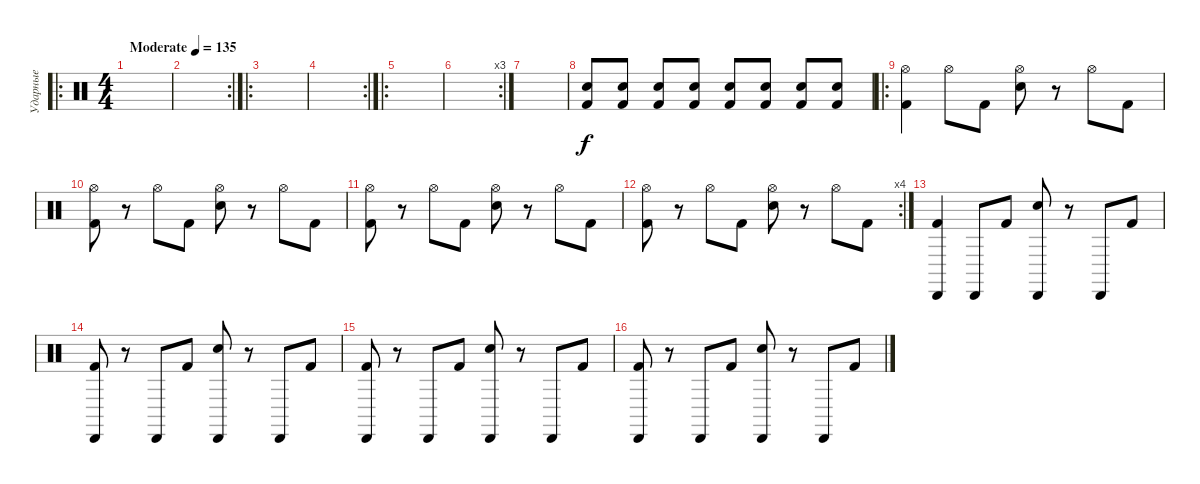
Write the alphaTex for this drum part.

\track ("Ударные" "Ударные") {instrument percussion}
\staff {score}
\articulation defaults
\ro
\ts (4 4)
\tempo (135 "Moderate")
\clef neutral
\ks c
|
\rc 2
|
\ro
|
\rc 2
|
\ro
|
\rc 3
|
|
("Electric Snare (hit)" "Kick (hit) 2").8 ("Electric Snare (hit)" "Kick (hit) 2").8 ("Electric Snare (hit)" "Kick (hit) 2").8 ("Electric Snare (hit)" "Kick (hit) 2").8 ("Electric Snare (hit)" "Kick (hit) 2").8 ("Electric Snare (hit)" "Kick (hit) 2").8 ("Electric Snare (hit)" "Kick (hit) 2").8 ("Electric Snare (hit)" "Kick (hit) 2").8 |
\ro
("Hi-Hat (open)" "Kick (hit) 2").4 "Hi-Hat (open)".8 "Kick (hit) 2".8 ("Electric Snare (hit)" "Hi-Hat (open)").8 r.8 "Hi-Hat (open)".8 "Kick (hit) 2".8 |
("Kick (hit) 2" "Hi-Hat (open)").8 r.8 "Hi-Hat (open)".8 "Kick (hit) 2".8 ("Electric Snare (hit)" "Hi-Hat (open)").8 r.8 "Hi-Hat (open)".8 "Kick (hit) 2".8 |
("Kick (hit) 2" "Hi-Hat (open)").8 r.8 "Hi-Hat (open)".8 "Kick (hit) 2".8 ("Electric Snare (hit)" "Hi-Hat (open)").8 r.8 "Hi-Hat (open)".8 "Kick (hit) 2".8 |
\rc 4
("Kick (hit) 2" "Hi-Hat (open)").8 r.8 "Hi-Hat (open)".8 "Kick (hit) 2".8 ("Electric Snare (hit)" "Hi-Hat (open)").8 r.8 "Hi-Hat (open)".8 "Kick (hit) 2".8 |
("Cabasa (hit)" "Kick (hit) 2").4 "Cabasa (hit)".8 "Kick (hit) 2".8 ("Electric Snare (hit)" "Cabasa (hit)").8 r.8 "Cabasa (hit)".8 "Kick (hit) 2".8 |
("Cabasa (hit)" "Kick (hit) 2").8 r.8 "Cabasa (hit)".8 "Kick (hit) 2".8 ("Electric Snare (hit)" "Cabasa (hit)").8 r.8 "Cabasa (hit)".8 "Kick (hit) 2".8 |
("Cabasa (hit)" "Kick (hit) 2").8 r.8 "Cabasa (hit)".8 "Kick (hit) 2".8 ("Electric Snare (hit)" "Cabasa (hit)").8 r.8 "Cabasa (hit)".8 "Kick (hit) 2".8 |
("Cabasa (hit)" "Kick (hit) 2").8 r.8 "Cabasa (hit)".8 "Kick (hit) 2".8 ("Electric Snare (hit)" "Cabasa (hit)").8 r.8 "Cabasa (hit)".8 "Kick (hit) 2".8
